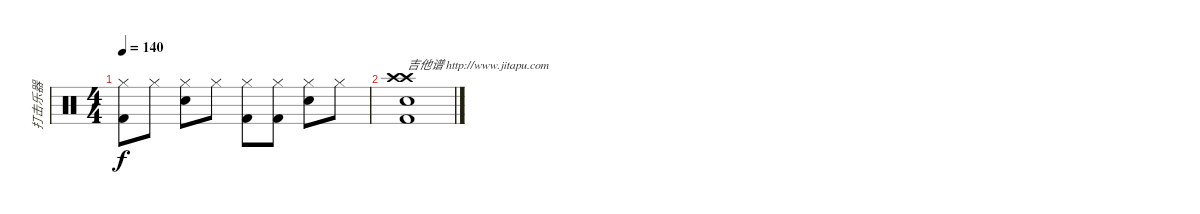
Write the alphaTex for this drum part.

\track ("打击乐器" "打击乐器") {instrument percussion}
\staff {score}
\articulation defaults
\ts (4 4)
\tempo 140
\clef neutral
\ks c
("Hi-Hat (closed)" "Kick (hit) 2").8{dy f} "Hi-Hat (closed)".8 ("Hi-Hat (closed)" "Electric Snare (hit)").8 "Hi-Hat (closed)".8 ("Hi-Hat (closed)" "Kick (hit) 2").8 ("Hi-Hat (closed)" "Kick (hit) 2").8 ("Hi-Hat (closed)" "Electric Snare (hit)").8 "Hi-Hat (closed)".8 |
("Crash high (hit)" "Kick (hit) 2" "Electric Snare (hit)" "Crash high (hit)").1{txt "吉他谱 http://www.jitapu.com"}
